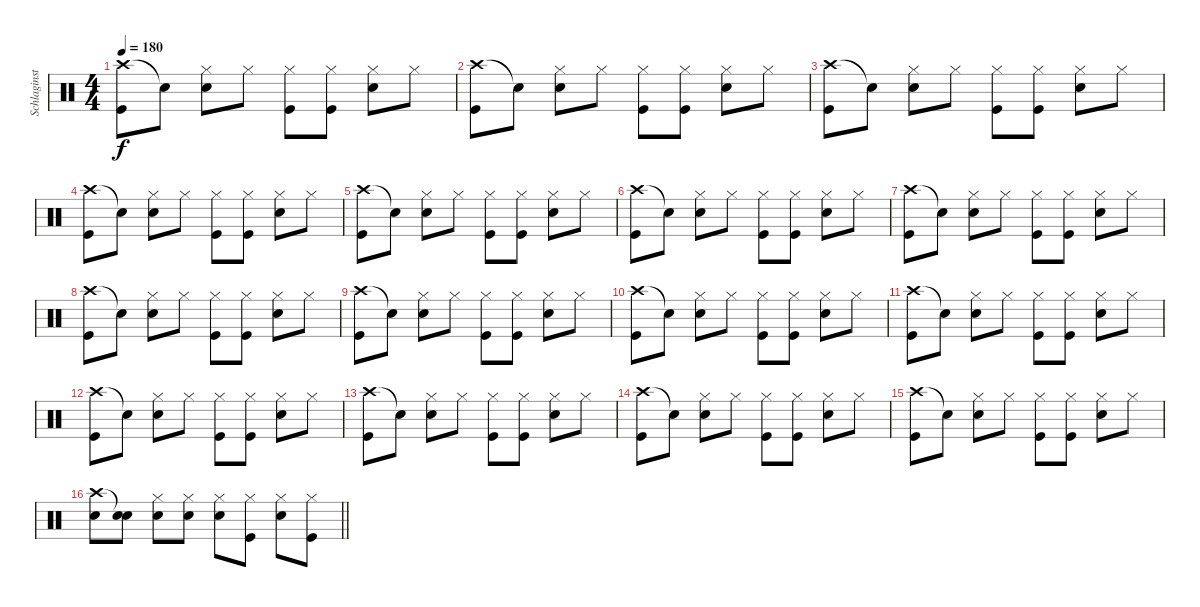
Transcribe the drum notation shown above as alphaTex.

\track ("Schlaginstrumente - Auswahl" "Schlaginst") {instrument percussion}
\staff {score}
\articulation defaults
\ts (4 4)
\tempo 180
\clef neutral
\ks c
("Crash high (hit)" "Kick (hit)").8{dy f} "Snare (hit)"{t}.8 ("Hi-Hat (closed)" "Electric Snare (hit)").8 "Hi-Hat (closed)".8 ("Hi-Hat (closed)" "Kick (hit)").8 ("Hi-Hat (closed)" "Kick (hit)").8 ("Hi-Hat (closed)" "Electric Snare (hit)").8 "Hi-Hat (closed)".8 |
("Crash high (hit)" "Kick (hit)").8 "Snare (hit)"{t}.8 ("Hi-Hat (closed)" "Electric Snare (hit)").8 "Hi-Hat (closed)".8 ("Hi-Hat (closed)" "Kick (hit)").8 ("Hi-Hat (closed)" "Kick (hit)").8 ("Hi-Hat (closed)" "Electric Snare (hit)").8 "Hi-Hat (closed)".8 |
("Crash high (hit)" "Kick (hit)").8 "Snare (hit)"{t}.8 ("Hi-Hat (closed)" "Electric Snare (hit)").8 "Hi-Hat (closed)".8 ("Hi-Hat (closed)" "Kick (hit)").8 ("Hi-Hat (closed)" "Kick (hit)").8 ("Hi-Hat (closed)" "Electric Snare (hit)").8 "Hi-Hat (closed)".8 |
("Crash high (hit)" "Kick (hit)").8 "Snare (hit)"{t}.8 ("Hi-Hat (closed)" "Electric Snare (hit)").8 "Hi-Hat (closed)".8 ("Hi-Hat (closed)" "Kick (hit)").8 ("Hi-Hat (closed)" "Kick (hit)").8 ("Hi-Hat (closed)" "Electric Snare (hit)").8 "Hi-Hat (closed)".8 |
("Crash high (hit)" "Kick (hit)").8 "Snare (hit)"{t}.8 ("Hi-Hat (closed)" "Electric Snare (hit)").8 "Hi-Hat (closed)".8 ("Hi-Hat (closed)" "Kick (hit)").8 ("Hi-Hat (closed)" "Kick (hit)").8 ("Hi-Hat (closed)" "Electric Snare (hit)").8 "Hi-Hat (closed)".8 |
("Crash high (hit)" "Kick (hit)").8 "Snare (hit)"{t}.8 ("Hi-Hat (closed)" "Electric Snare (hit)").8 "Hi-Hat (closed)".8 ("Hi-Hat (closed)" "Kick (hit)").8 ("Hi-Hat (closed)" "Kick (hit)").8 ("Hi-Hat (closed)" "Electric Snare (hit)").8 "Hi-Hat (closed)".8 |
("Crash high (hit)" "Kick (hit)").8 "Snare (hit)"{t}.8 ("Hi-Hat (closed)" "Electric Snare (hit)").8 "Hi-Hat (closed)".8 ("Hi-Hat (closed)" "Kick (hit)").8 ("Hi-Hat (closed)" "Kick (hit)").8 ("Hi-Hat (closed)" "Electric Snare (hit)").8 "Hi-Hat (closed)".8 |
("Crash high (hit)" "Kick (hit)").8 "Snare (hit)"{t}.8 ("Hi-Hat (closed)" "Electric Snare (hit)").8 "Hi-Hat (closed)".8 ("Hi-Hat (closed)" "Kick (hit)").8 ("Hi-Hat (closed)" "Kick (hit)").8 ("Hi-Hat (closed)" "Electric Snare (hit)").8 "Hi-Hat (closed)".8 |
("Crash high (hit)" "Kick (hit)").8 "Snare (hit)"{t}.8 ("Hi-Hat (closed)" "Electric Snare (hit)").8 "Hi-Hat (closed)".8 ("Hi-Hat (closed)" "Kick (hit)").8 ("Hi-Hat (closed)" "Kick (hit)").8 ("Hi-Hat (closed)" "Electric Snare (hit)").8 "Hi-Hat (closed)".8 |
("Crash high (hit)" "Kick (hit)").8 "Snare (hit)"{t}.8 ("Hi-Hat (closed)" "Electric Snare (hit)").8 "Hi-Hat (closed)".8 ("Hi-Hat (closed)" "Kick (hit)").8 ("Hi-Hat (closed)" "Kick (hit)").8 ("Hi-Hat (closed)" "Electric Snare (hit)").8 "Hi-Hat (closed)".8 |
("Crash high (hit)" "Kick (hit)").8 "Snare (hit)"{t}.8 ("Hi-Hat (closed)" "Electric Snare (hit)").8 "Hi-Hat (closed)".8 ("Hi-Hat (closed)" "Kick (hit)").8 ("Hi-Hat (closed)" "Kick (hit)").8 ("Hi-Hat (closed)" "Electric Snare (hit)").8 "Hi-Hat (closed)".8 |
("Crash high (hit)" "Kick (hit)").8 "Snare (hit)"{t}.8 ("Hi-Hat (closed)" "Electric Snare (hit)").8 "Hi-Hat (closed)".8 ("Hi-Hat (closed)" "Kick (hit)").8 ("Hi-Hat (closed)" "Kick (hit)").8 ("Hi-Hat (closed)" "Electric Snare (hit)").8 "Hi-Hat (closed)".8 |
("Crash high (hit)" "Kick (hit)").8 "Snare (hit)"{t}.8 ("Hi-Hat (closed)" "Electric Snare (hit)").8 "Hi-Hat (closed)".8 ("Hi-Hat (closed)" "Kick (hit)").8 ("Hi-Hat (closed)" "Kick (hit)").8 ("Hi-Hat (closed)" "Electric Snare (hit)").8 "Hi-Hat (closed)".8 |
("Crash high (hit)" "Kick (hit)").8 "Snare (hit)"{t}.8 ("Hi-Hat (closed)" "Electric Snare (hit)").8 "Hi-Hat (closed)".8 ("Hi-Hat (closed)" "Kick (hit)").8 ("Hi-Hat (closed)" "Kick (hit)").8 ("Hi-Hat (closed)" "Electric Snare (hit)").8 "Hi-Hat (closed)".8 |
("Crash high (hit)" "Kick (hit)").8 "Snare (hit)"{t}.8 ("Hi-Hat (closed)" "Electric Snare (hit)").8 "Hi-Hat (closed)".8 ("Hi-Hat (closed)" "Kick (hit)").8 ("Hi-Hat (closed)" "Kick (hit)").8 ("Hi-Hat (closed)" "Electric Snare (hit)").8 "Hi-Hat (closed)".8 |
\barLineRight lightlight
("Crash high (hit)" "Electric Snare (hit)").8 ("Snare (hit)"{t} "Electric Snare (hit)").8 ("Hi-Hat (closed)" "Electric Snare (hit)").8 ("Hi-Hat (closed)" "Electric Snare (hit)").8 ("Hi-Hat (closed)" "Electric Snare (hit)").8 ("Hi-Hat (closed)" "Kick (hit)").8 ("Hi-Hat (closed)" "Electric Snare (hit)").8 ("Hi-Hat (closed)" "Kick (hit)").8
